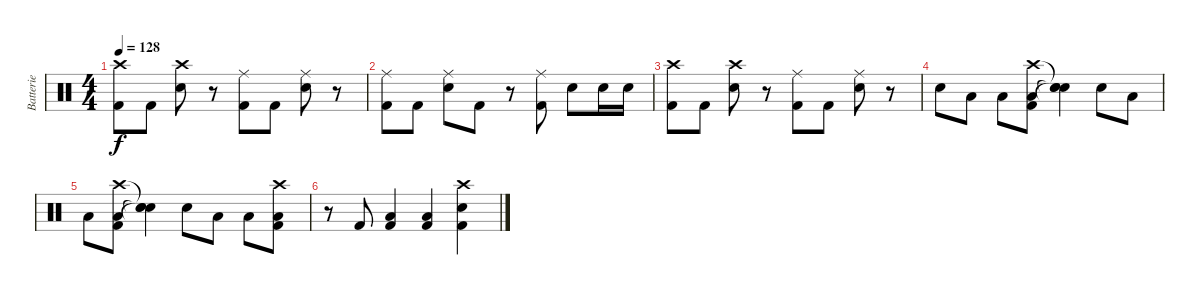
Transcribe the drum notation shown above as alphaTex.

\track ("Batterie" "Batterie") {instrument percussion}
\staff {score}
\articulation defaults
\ts (4 4)
\tempo 128
\clef neutral
\ks c
("Crash high (hit)" "Kick (hit) 2").8{dy f} "Kick (hit) 2".8 ("Crash high (hit)" "Snare (hit) 2").8 r.8 ("Ride (middle)" "Kick (hit) 2").8 "Kick (hit) 2".8 ("Ride (middle)" "Snare (hit) 2").8 r.8 |
("Ride (middle)" "Kick (hit) 2").8 "Kick (hit) 2".8 ("Ride (middle)" "Snare (hit) 2").8 "Kick (hit) 2".8 r.8 ("Ride (middle)" "Kick (hit) 2").8 "Snare (hit) 2".8 "Snare (hit) 2".16 "Snare (hit) 2".16 |
("Crash high (hit)" "Kick (hit) 2").8 "Kick (hit) 2".8 ("Crash high (hit)" "Snare (hit) 2").8 r.8 ("Ride (middle)" "Kick (hit) 2").8 "Kick (hit) 2".8 ("Ride (middle)" "Snare (hit) 2").8 r.8 |
"Snare (hit) 2".8 "Low Tom (hit)".8 "Low Floor Tom (hit)".8 ("Crash high (hit)" "Low Floor Tom (hit)" "Kick (hit) 2").8 ("Snare (hit)"{t} "Snare (hit)"{t} "Snare (hit)"{t}).4 "Snare (hit) 2".8 "Low Tom (hit)".8 |
"Low Floor Tom (hit)".8 ("Crash high (hit)" "Low Floor Tom (hit)" "Kick (hit) 2").8 ("Snare (hit)"{t} "Snare (hit)"{t} "Snare (hit)"{t}).4 "Snare (hit) 2".8 "Low Tom (hit)".8 "Low Floor Tom (hit)".8 ("Crash high (hit)" "Low Floor Tom (hit)" "Kick (hit) 2").8 |
r.8 "Kick (hit) 2".8 ("Low Floor Tom (hit)" "Kick (hit) 2").4 ("Low Floor Tom (hit)" "Kick (hit) 2").4 ("Crash high (hit)" "Snare (hit) 2" "Kick (hit) 2").4
